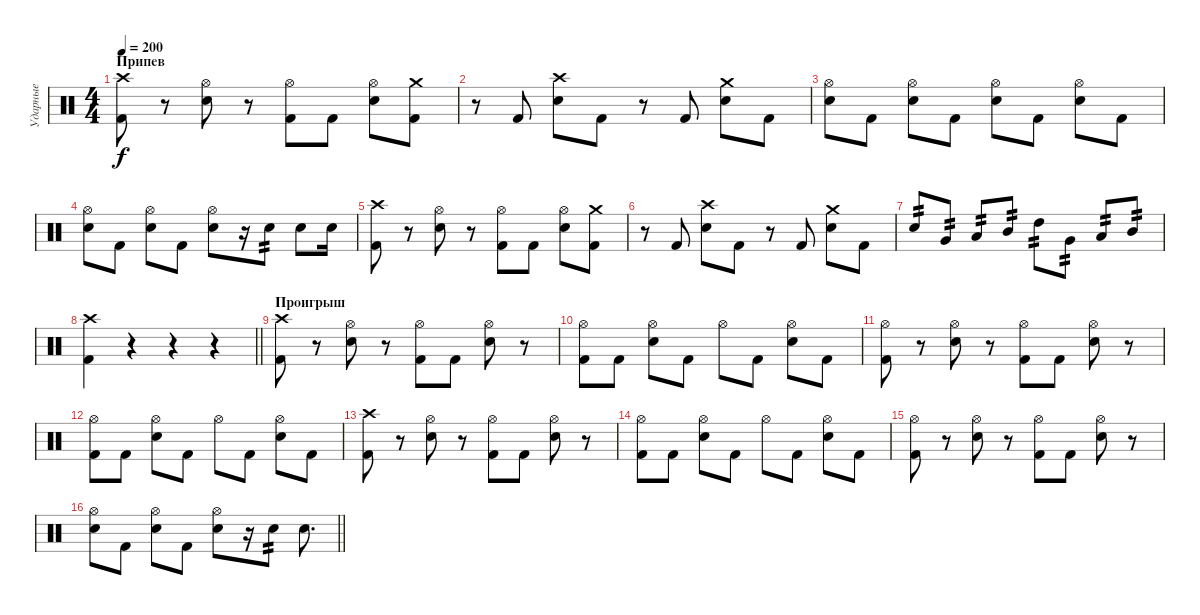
\track ("Ударные" "Ударные") {instrument percussion}
\staff {score}
\articulation defaults
\ts (4 4)
\section ("" "Припев")
\tempo 200
\clef neutral
\ks c
("Crash high (hit)" "Kick (hit) 2").8{dy f} r.8 ("Hi-Hat (open)" "Electric Snare (hit)").8 r.8 ("Hi-Hat (open)" "Kick (hit) 2").8 "Kick (hit) 2".8 ("Hi-Hat (open)" "Electric Snare (hit)").8 ("Crash medium (hit)" "Kick (hit) 2").8 |
r.8 "Kick (hit) 2".8 ("Crash high (hit)" "Electric Snare (hit)").8 "Kick (hit) 2".8 r.8 "Kick (hit) 2".8 ("Crash medium (hit)" "Electric Snare (hit)").8 "Kick (hit) 2".8 |
("Hi-Hat (open)" "Electric Snare (hit)").8 "Kick (hit) 2".8 ("Hi-Hat (open)" "Electric Snare (hit)").8 "Kick (hit) 2".8 ("Hi-Hat (open)" "Electric Snare (hit)").8 "Kick (hit) 2".8 ("Hi-Hat (open)" "Electric Snare (hit)").8 "Kick (hit) 2".8 |
("Hi-Hat (open)" "Electric Snare (hit)").8 "Kick (hit) 2".8 ("Hi-Hat (open)" "Electric Snare (hit)").8 "Kick (hit) 2".8 ("Hi-Hat (open)" "Electric Snare (hit)").8 r.16 "Electric Snare (hit)".8{tp 2} "Electric Snare (hit)".8 "Electric Snare (hit)".16 |
("Crash high (hit)" "Kick (hit) 2").8 r.8 ("Hi-Hat (open)" "Electric Snare (hit)").8 r.8 ("Hi-Hat (open)" "Kick (hit) 2").8 "Kick (hit) 2".8 ("Hi-Hat (open)" "Electric Snare (hit)").8 ("Crash medium (hit)" "Kick (hit) 2").8 |
r.8 "Kick (hit) 2".8 ("Crash high (hit)" "Electric Snare (hit)").8 "Kick (hit) 2".8 r.8 "Kick (hit) 2".8 ("Crash medium (hit)" "Electric Snare (hit)").8 "Kick (hit) 2".8 |
"Electric Snare (hit)".8{tp 2} "Very Low Tom (hit)".8{tp 2} "Low Tom (hit)".8{tp 2} "Mid Tom (hit)".8{tp 2} "High Tom (hit)".8{tp 2} "Very Low Tom (hit)".8{tp 2} "Low Tom (hit)".8{tp 2} "Mid Tom (hit)".8{tp 2} |
\barLineRight lightlight
("Crash high (hit)" "Kick (hit) 2").4 r.4 r.4 r.4 |
\section ("" "Проигрыш")
("Crash high (hit)" "Kick (hit) 2").8 r.8 ("Hi-Hat (open)" "Electric Snare (hit)").8 r.8 ("Hi-Hat (open)" "Kick (hit) 2").8 "Kick (hit) 2".8 ("Hi-Hat (open)" "Electric Snare (hit)").8 r.8 |
("Hi-Hat (open)" "Kick (hit) 2").8 "Kick (hit) 2".8 ("Hi-Hat (open)" "Electric Snare (hit)").8 "Kick (hit) 2".8 "Hi-Hat (open)".8 "Kick (hit) 2".8 ("Hi-Hat (open)" "Electric Snare (hit)").8 "Kick (hit) 2".8 |
("Hi-Hat (open)" "Kick (hit) 2").8 r.8 ("Hi-Hat (open)" "Electric Snare (hit)").8 r.8 ("Hi-Hat (open)" "Kick (hit) 2").8 "Kick (hit) 2".8 ("Hi-Hat (open)" "Electric Snare (hit)").8 r.8 |
("Hi-Hat (open)" "Kick (hit) 2").8 "Kick (hit) 2".8 ("Hi-Hat (open)" "Electric Snare (hit)").8 "Kick (hit) 2".8 "Hi-Hat (open)".8 "Kick (hit) 2".8 ("Hi-Hat (open)" "Electric Snare (hit)").8 "Kick (hit) 2".8 |
("Crash high (hit)" "Kick (hit) 2").8 r.8 ("Hi-Hat (open)" "Electric Snare (hit)").8 r.8 ("Hi-Hat (open)" "Kick (hit) 2").8 "Kick (hit) 2".8 ("Hi-Hat (open)" "Electric Snare (hit)").8 r.8 |
("Hi-Hat (open)" "Kick (hit) 2").8 "Kick (hit) 2".8 ("Hi-Hat (open)" "Electric Snare (hit)").8 "Kick (hit) 2".8 "Hi-Hat (open)".8 "Kick (hit) 2".8 ("Hi-Hat (open)" "Electric Snare (hit)").8 "Kick (hit) 2".8 |
("Hi-Hat (open)" "Kick (hit) 2").8 r.8 ("Hi-Hat (open)" "Electric Snare (hit)").8 r.8 ("Hi-Hat (open)" "Kick (hit) 2").8 "Kick (hit) 2".8 ("Hi-Hat (open)" "Electric Snare (hit)").8 r.8 |
\barLineRight lightlight
("Hi-Hat (open)" "Electric Snare (hit)").8 "Kick (hit) 2".8 ("Hi-Hat (open)" "Electric Snare (hit)").8 "Kick (hit) 2".8 ("Hi-Hat (open)" "Electric Snare (hit)").8 r.16 "Electric Snare (hit)".8{tp 2} "Electric Snare (hit)".8{d}
